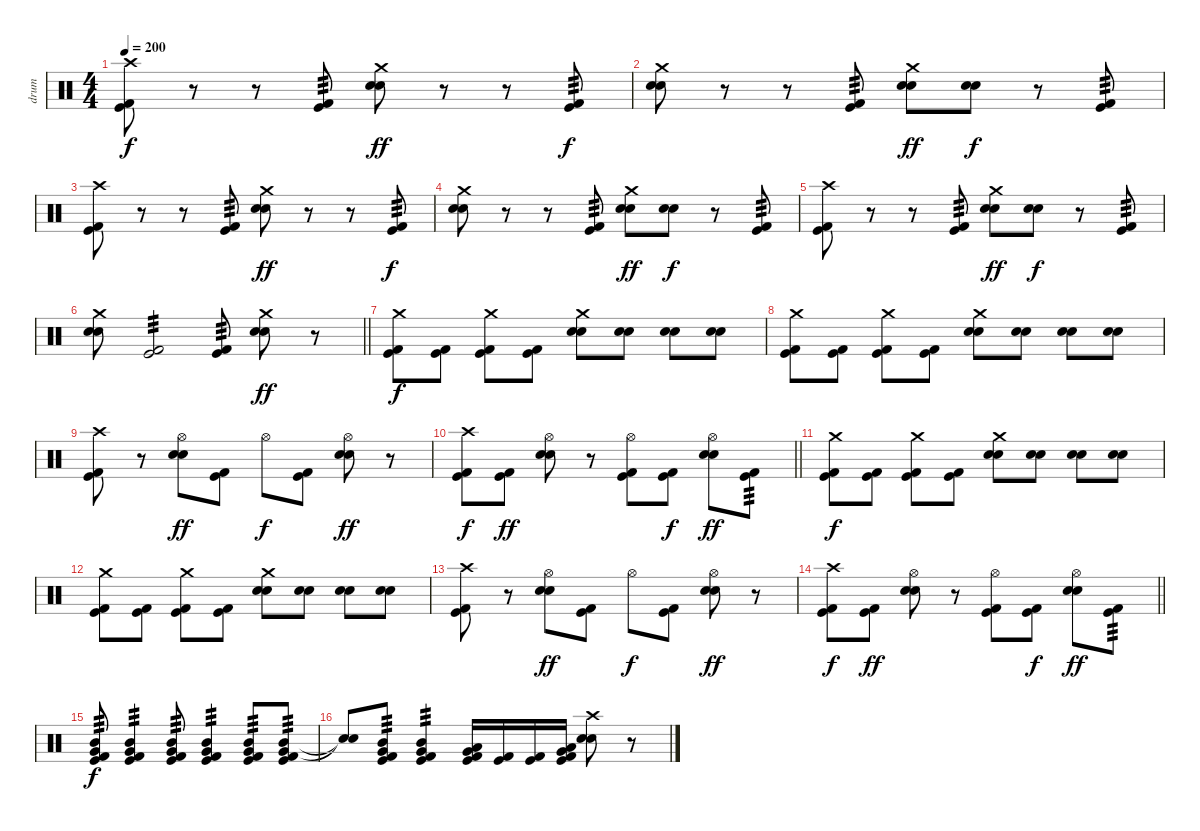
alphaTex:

\track ("drum" "drum") {instrument percussion}
\staff {score}
\articulation defaults
\ts (4 4)
\tempo 200
\clef neutral
\ks c
("Crash high (hit)" "Kick (hit)" "Kick (hit) 2").8{dy f} r.8 r.8 ("Kick (hit)" "Kick (hit) 2").8{tp 3} ("Crash medium (hit)" "Electric Snare (hit)" "Electric Snare (hit)").8{dy ff} r.8 r.8 ("Kick (hit)" "Kick (hit) 2").8{tp 3 dy f} |
("Crash medium (hit)" "Electric Snare (hit)" "Electric Snare (hit)").8 r.8 r.8 ("Kick (hit)" "Kick (hit) 2").8{tp 3} ("Crash medium (hit)" "Electric Snare (hit)" "Electric Snare (hit)").8{dy ff} ("Electric Snare (hit)" "Electric Snare (hit)").8{dy f} r.8 ("Kick (hit)" "Kick (hit) 2").8{tp 3} |
("Crash high (hit)" "Kick (hit)" "Kick (hit) 2").8 r.8 r.8 ("Kick (hit)" "Kick (hit) 2").8{tp 3} ("Crash medium (hit)" "Electric Snare (hit)" "Electric Snare (hit)").8{dy ff} r.8 r.8 ("Kick (hit)" "Kick (hit) 2").8{tp 3 dy f} |
("Crash medium (hit)" "Electric Snare (hit)" "Electric Snare (hit)").8 r.8 r.8 ("Kick (hit)" "Kick (hit) 2").8{tp 3} ("Crash medium (hit)" "Electric Snare (hit)" "Electric Snare (hit)").8{dy ff} ("Electric Snare (hit)" "Electric Snare (hit)").8{dy f} r.8 ("Kick (hit)" "Kick (hit) 2").8{tp 3} |
("Crash high (hit)" "Kick (hit)" "Kick (hit) 2").8 r.8 r.8 ("Kick (hit)" "Kick (hit) 2").8{tp 3} ("Crash medium (hit)" "Electric Snare (hit)" "Electric Snare (hit)").8{dy ff} ("Electric Snare (hit)" "Electric Snare (hit)").8{dy f} r.8 ("Kick (hit)" "Kick (hit) 2").8{tp 3} |
\barLineRight lightlight
("Crash medium (hit)" "Electric Snare (hit)" "Electric Snare (hit)").8 ("Kick (hit)" "Kick (hit) 2").2{tp 3} ("Kick (hit)" "Kick (hit) 2").8{tp 3} ("Crash medium (hit)" "Electric Snare (hit)" "Electric Snare (hit)").8{dy ff} r.8 |
\section ("" "")
("Crash medium (hit)" "Kick (hit)" "Kick (hit) 2").8{dy f} ("Kick (hit)" "Kick (hit) 2").8 ("Crash medium (hit)" "Kick (hit)" "Kick (hit) 2").8 ("Kick (hit)" "Kick (hit) 2").8 ("Crash medium (hit)" "Electric Snare (hit)" "Electric Snare (hit)").8 ("Electric Snare (hit)" "Electric Snare (hit)").8 ("Electric Snare (hit)" "Electric Snare (hit)").8 ("Electric Snare (hit)" "Electric Snare (hit)").8 |
("Crash medium (hit)" "Kick (hit)" "Kick (hit) 2").8 ("Kick (hit)" "Kick (hit) 2").8 ("Crash medium (hit)" "Kick (hit)" "Kick (hit) 2").8 ("Kick (hit)" "Kick (hit) 2").8 ("Crash medium (hit)" "Electric Snare (hit)" "Electric Snare (hit)").8 ("Electric Snare (hit)" "Electric Snare (hit)").8 ("Electric Snare (hit)" "Electric Snare (hit)").8 ("Electric Snare (hit)" "Electric Snare (hit)").8 |
("Crash high (hit)" "Kick (hit)" "Kick (hit) 2").8 r.8 ("Hi-Hat (open)" "Electric Snare (hit)" "Electric Snare (hit)").8{dy ff} ("Kick (hit)" "Kick (hit) 2").8 "Hi-Hat (open)".8{dy f} ("Kick (hit)" "Kick (hit) 2").8 ("Hi-Hat (open)" "Electric Snare (hit)" "Electric Snare (hit)").8{dy ff} r.8 |
\barLineRight lightlight
("Crash high (hit)" "Kick (hit)" "Kick (hit) 2").8{dy f} ("Kick (hit)" "Kick (hit) 2").8{dy ff} ("Hi-Hat (open)" "Electric Snare (hit)" "Electric Snare (hit)").8 r.8 ("Hi-Hat (open)" "Kick (hit)" "Kick (hit) 2").8 ("Kick (hit)" "Kick (hit) 2").8{dy f} ("Hi-Hat (open)" "Electric Snare (hit)" "Electric Snare (hit)").8{dy ff} ("Kick (hit)" "Kick (hit) 2").8{tp 3} |
("Crash medium (hit)" "Kick (hit)" "Kick (hit) 2").8{dy f} ("Kick (hit)" "Kick (hit) 2").8 ("Crash medium (hit)" "Kick (hit)" "Kick (hit) 2").8 ("Kick (hit)" "Kick (hit) 2").8 ("Crash medium (hit)" "Electric Snare (hit)" "Electric Snare (hit)").8 ("Electric Snare (hit)" "Electric Snare (hit)").8 ("Electric Snare (hit)" "Electric Snare (hit)").8 ("Electric Snare (hit)" "Electric Snare (hit)").8 |
("Crash medium (hit)" "Kick (hit)" "Kick (hit) 2").8 ("Kick (hit)" "Kick (hit) 2").8 ("Crash medium (hit)" "Kick (hit)" "Kick (hit) 2").8 ("Kick (hit)" "Kick (hit) 2").8 ("Crash medium (hit)" "Electric Snare (hit)" "Electric Snare (hit)").8 ("Electric Snare (hit)" "Electric Snare (hit)").8 ("Electric Snare (hit)" "Electric Snare (hit)").8 ("Electric Snare (hit)" "Electric Snare (hit)").8 |
("Crash high (hit)" "Kick (hit)" "Kick (hit) 2").8 r.8 ("Hi-Hat (open)" "Electric Snare (hit)" "Electric Snare (hit)").8{dy ff} ("Kick (hit)" "Kick (hit) 2").8 "Hi-Hat (open)".8{dy f} ("Kick (hit)" "Kick (hit) 2").8 ("Hi-Hat (open)" "Electric Snare (hit)" "Electric Snare (hit)").8{dy ff} r.8 |
\barLineRight lightlight
("Crash high (hit)" "Kick (hit)" "Kick (hit) 2").8{dy f} ("Kick (hit)" "Kick (hit) 2").8{dy ff} ("Hi-Hat (open)" "Electric Snare (hit)" "Electric Snare (hit)").8 r.8 ("Hi-Hat (open)" "Kick (hit)" "Kick (hit) 2").8 ("Kick (hit)" "Kick (hit) 2").8{dy f} ("Hi-Hat (open)" "Electric Snare (hit)" "Electric Snare (hit)").8{dy ff} ("Kick (hit)" "Kick (hit) 2").8{tp 3} |
\section ("" "")
("Mid Tom (hit)" "Very Low Tom (hit)" "Kick (hit)" "Kick (hit) 2").8{tp 3 dy f} ("Mid Tom (hit)" "Very Low Tom (hit)" "Kick (hit)" "Kick (hit) 2").4{tp 3} ("Mid Tom (hit)" "Very Low Tom (hit)" "Kick (hit)" "Kick (hit) 2").8{tp 3} ("Mid Tom (hit)" "Very Low Tom (hit)" "Kick (hit)" "Kick (hit) 2").4{tp 3} ("Mid Tom (hit)" "Very Low Tom (hit)" "Kick (hit)" "Kick (hit) 2").8{tp 3} ("Mid Tom (hit)" "Very Low Tom (hit)" "Kick (hit)" "Kick (hit) 2").8{tp 3} |
("Snare (hit)"{t} "Snare (hit)"{t}).8 ("Mid Tom (hit)" "Very Low Tom (hit)" "Kick (hit)" "Kick (hit) 2").8{tp 3} ("Mid Tom (hit)" "Very Low Tom (hit)" "Kick (hit)" "Kick (hit) 2").4{tp 3} ("Low Tom (hit)" "Very Low Tom (hit)" "Kick (hit)" "Kick (hit) 2").16 ("Kick (hit)" "Kick (hit) 2").16 ("Kick (hit)" "Kick (hit) 2").16 ("Low Tom (hit)" "Very Low Tom (hit)" "Kick (hit)" "Kick (hit) 2").16 ("Crash high (hit)" "Electric Snare (hit)" "Electric Snare (hit)").8 r.8
